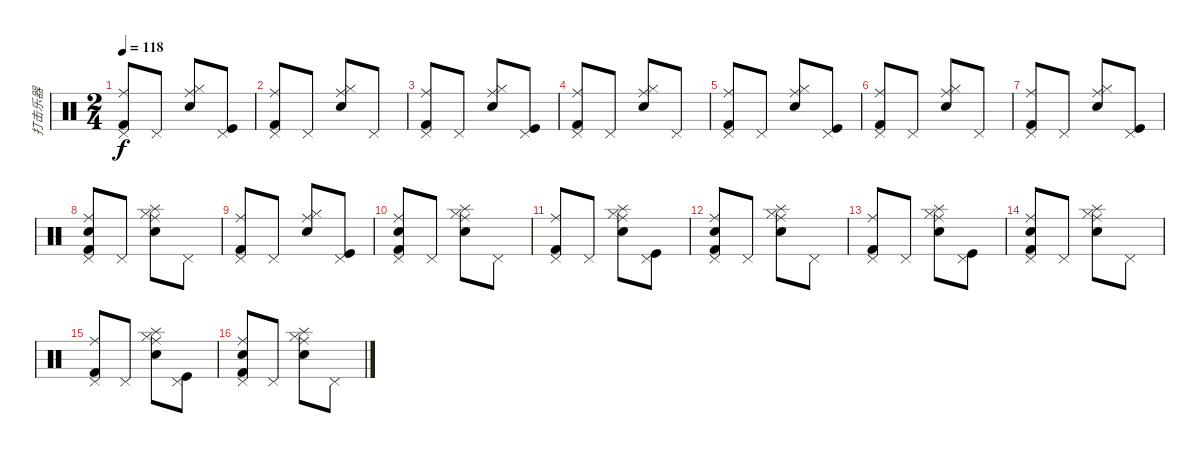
\track ("打击乐器" "打击乐器") {instrument percussion}
\staff {score}
\articulation defaults
\ts (2 4)
\tempo 118
\clef neutral
\ks c
("Pedal Hi-Hat (hit)" "Ride (middle)" "Kick (hit) 2").8{dy f} "Pedal Hi-Hat (hit)".8 ("Ride (middle)" "Hi-Hat (closed)" "Snare (hit) 2").8 ("Pedal Hi-Hat (hit)" "Kick (hit)").8 |
("Pedal Hi-Hat (hit)" "Ride (middle)" "Kick (hit) 2").8 "Pedal Hi-Hat (hit)".8 ("Ride (middle)" "Hi-Hat (closed)" "Snare (hit) 2").8 "Pedal Hi-Hat (hit)".8 |
("Pedal Hi-Hat (hit)" "Ride (middle)" "Kick (hit) 2").8 "Pedal Hi-Hat (hit)".8 ("Ride (middle)" "Hi-Hat (closed)" "Snare (hit) 2").8 ("Pedal Hi-Hat (hit)" "Kick (hit)").8 |
("Pedal Hi-Hat (hit)" "Ride (middle)" "Kick (hit) 2").8 "Pedal Hi-Hat (hit)".8 ("Ride (middle)" "Hi-Hat (closed)" "Snare (hit) 2").8 "Pedal Hi-Hat (hit)".8 |
("Pedal Hi-Hat (hit)" "Ride (middle)" "Kick (hit) 2").8 "Pedal Hi-Hat (hit)".8 ("Ride (middle)" "Hi-Hat (closed)" "Snare (hit) 2").8 ("Pedal Hi-Hat (hit)" "Kick (hit)").8 |
("Pedal Hi-Hat (hit)" "Ride (middle)" "Kick (hit) 2").8 "Pedal Hi-Hat (hit)".8 ("Ride (middle)" "Hi-Hat (closed)" "Snare (hit) 2").8 "Pedal Hi-Hat (hit)".8 |
("Pedal Hi-Hat (hit)" "Ride (middle)" "Kick (hit) 2").8 "Pedal Hi-Hat (hit)".8 ("Ride (middle)" "Hi-Hat (closed)" "Snare (hit) 2").8 ("Pedal Hi-Hat (hit)" "Kick (hit)").8 |
("Snare (hit) 2" "Pedal Hi-Hat (hit)" "Ride (middle)" "Kick (hit) 2").8 "Pedal Hi-Hat (hit)".8 ("Ride (middle)" "Hi-Hat (closed)" "Splash (hit)" "Snare (hit) 2").8 "Pedal Hi-Hat (hit)".8 |
("Pedal Hi-Hat (hit)" "Ride (middle)" "Kick (hit) 2").8 "Pedal Hi-Hat (hit)".8 ("Ride (middle)" "Hi-Hat (closed)" "Snare (hit) 2").8 ("Pedal Hi-Hat (hit)" "Kick (hit)").8 |
("Snare (hit) 2" "Pedal Hi-Hat (hit)" "Ride (middle)" "Kick (hit) 2").8 "Pedal Hi-Hat (hit)".8 ("Ride (middle)" "Hi-Hat (closed)" "Splash (hit)" "Snare (hit) 2").8 "Pedal Hi-Hat (hit)".8 |
("Pedal Hi-Hat (hit)" "Ride (middle)" "Kick (hit) 2").8 "Pedal Hi-Hat (hit)".8 ("Ride (middle)" "Hi-Hat (closed)" "Splash (hit)" "Snare (hit) 2").8 ("Pedal Hi-Hat (hit)" "Kick (hit)").8 |
("Snare (hit) 2" "Pedal Hi-Hat (hit)" "Ride (middle)" "Kick (hit) 2").8 "Pedal Hi-Hat (hit)".8 ("Ride (middle)" "Hi-Hat (closed)" "Splash (hit)" "Snare (hit) 2").8 "Pedal Hi-Hat (hit)".8 |
("Pedal Hi-Hat (hit)" "Ride (middle)" "Kick (hit) 2").8 "Pedal Hi-Hat (hit)".8 ("Ride (middle)" "Hi-Hat (closed)" "Splash (hit)" "Snare (hit) 2").8 ("Pedal Hi-Hat (hit)" "Kick (hit)").8 |
("Snare (hit) 2" "Pedal Hi-Hat (hit)" "Ride (middle)" "Kick (hit) 2").8 "Pedal Hi-Hat (hit)".8 ("Ride (middle)" "Hi-Hat (closed)" "Splash (hit)" "Snare (hit) 2").8 "Pedal Hi-Hat (hit)".8 |
("Pedal Hi-Hat (hit)" "Ride (middle)" "Kick (hit) 2").8 "Pedal Hi-Hat (hit)".8 ("Ride (middle)" "Hi-Hat (closed)" "Splash (hit)" "Snare (hit) 2").8 ("Pedal Hi-Hat (hit)" "Kick (hit)").8 |
("Snare (hit) 2" "Pedal Hi-Hat (hit)" "Ride (middle)" "Kick (hit) 2").8 "Pedal Hi-Hat (hit)".8 ("Ride (middle)" "Hi-Hat (closed)" "Splash (hit)" "Snare (hit) 2").8 "Pedal Hi-Hat (hit)".8
